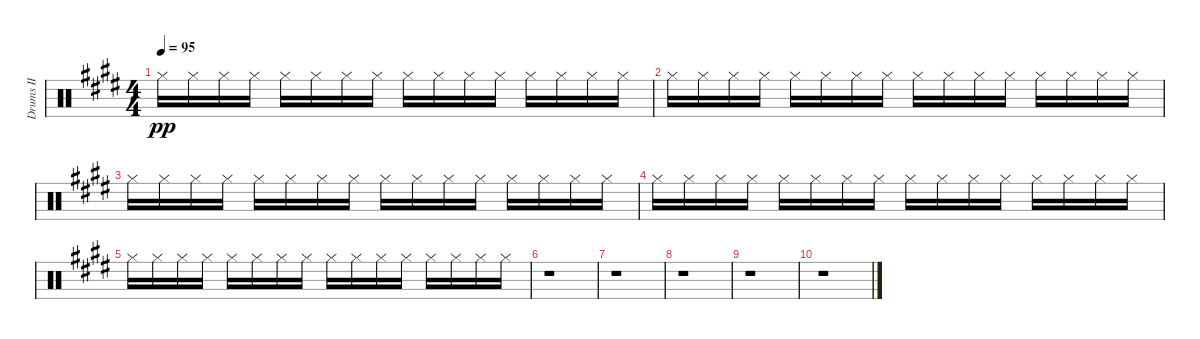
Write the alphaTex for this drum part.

\track ("Drums II" "Drums II") {instrument percussion}
\staff {score}
\articulation defaults
\ts (4 4)
\tempo 95
\clef neutral
\ks e "Hi-Hat (closed)".16{dy pp} "Hi-Hat (closed)".16 "Hi-Hat (closed)".16 "Hi-Hat (closed)".16 "Hi-Hat (closed)".16 "Hi-Hat (closed)".16 "Hi-Hat (closed)".16 "Hi-Hat (closed)".16 "Hi-Hat (closed)".16 "Hi-Hat (closed)".16 "Hi-Hat (closed)".16 "Hi-Hat (closed)".16 "Hi-Hat (closed)".16 "Hi-Hat (closed)".16 "Hi-Hat (closed)".16 "Hi-Hat (closed)".16
|
"Hi-Hat (closed)".16 "Hi-Hat (closed)".16 "Hi-Hat (closed)".16 "Hi-Hat (closed)".16 "Hi-Hat (closed)".16 "Hi-Hat (closed)".16 "Hi-Hat (closed)".16 "Hi-Hat (closed)".16 "Hi-Hat (closed)".16 "Hi-Hat (closed)".16 "Hi-Hat (closed)".16 "Hi-Hat (closed)".16 "Hi-Hat (closed)".16 "Hi-Hat (closed)".16 "Hi-Hat (closed)".16 "Hi-Hat (closed)".16 |
"Hi-Hat (closed)".16 "Hi-Hat (closed)".16 "Hi-Hat (closed)".16 "Hi-Hat (closed)".16 "Hi-Hat (closed)".16 "Hi-Hat (closed)".16 "Hi-Hat (closed)".16 "Hi-Hat (closed)".16 "Hi-Hat (closed)".16 "Hi-Hat (closed)".16 "Hi-Hat (closed)".16 "Hi-Hat (closed)".16 "Hi-Hat (closed)".16 "Hi-Hat (closed)".16 "Hi-Hat (closed)".16 "Hi-Hat (closed)".16 |
"Hi-Hat (closed)".16 "Hi-Hat (closed)".16 "Hi-Hat (closed)".16 "Hi-Hat (closed)".16 "Hi-Hat (closed)".16 "Hi-Hat (closed)".16 "Hi-Hat (closed)".16 "Hi-Hat (closed)".16 "Hi-Hat (closed)".16 "Hi-Hat (closed)".16 "Hi-Hat (closed)".16 "Hi-Hat (closed)".16 "Hi-Hat (closed)".16 "Hi-Hat (closed)".16 "Hi-Hat (closed)".16 "Hi-Hat (closed)".16 |
"Hi-Hat (closed)".16 "Hi-Hat (closed)".16 "Hi-Hat (closed)".16 "Hi-Hat (closed)".16 "Hi-Hat (closed)".16 "Hi-Hat (closed)".16 "Hi-Hat (closed)".16 "Hi-Hat (closed)".16 "Hi-Hat (closed)".16 "Hi-Hat (closed)".16 "Hi-Hat (closed)".16 "Hi-Hat (closed)".16 "Hi-Hat (closed)".16 "Hi-Hat (closed)".16 "Hi-Hat (closed)".16 "Hi-Hat (closed)".16 |
r.1 |
r.1 |
r.1 |
r.1 |
r.1
